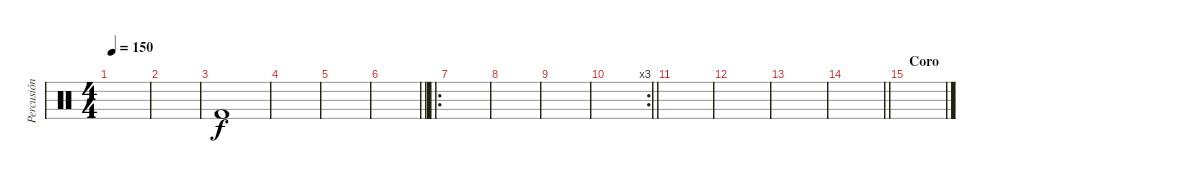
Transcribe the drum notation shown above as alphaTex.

\track ("Percusión" "Percusión") {instrument percussion}
\staff {score}
\articulation defaults
\ts (4 4)
\tempo 150
\clef neutral
\ks c
|
|
"Kick (hit) 2".1 |
|
|
\barLineRight lightlight
|
\ro
|
|
|
\rc 3
\barLineRight lightlight
|
|
|
|
\barLineRight lightlight
|
\section ("" "Coro")
